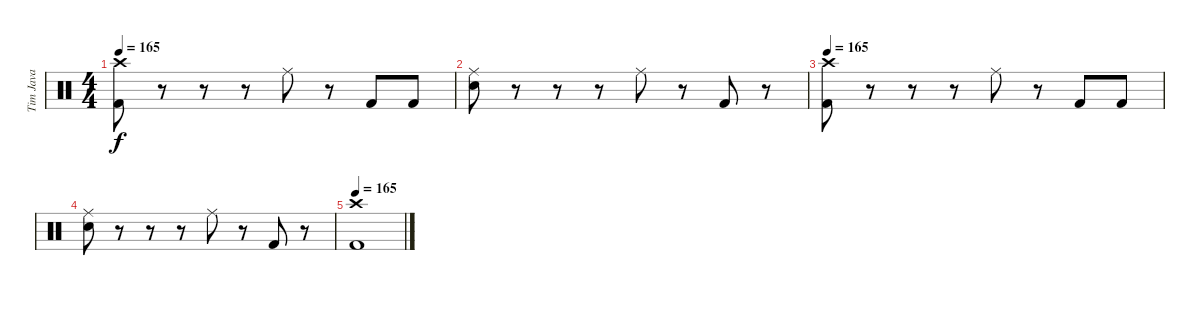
\track ("Tim Java" "Tim Java") {instrument percussion}
\staff {score}
\articulation defaults
\ts (4 4)
\tempo 165
\clef neutral
\ks c
("Crash high (hit)" "Kick (hit) 2").8{dy f} r.8 r.8 r.8 "Ride (middle)".8 r.8 "Kick (hit) 2".8 "Kick (hit) 2".8 |
("Ride (middle)" "Electric Snare (hit)").8 r.8 r.8 r.8 "Ride (middle)".8 r.8 "Kick (hit) 2".8 r.8 |
\tempo 165
("Crash high (hit)" "Kick (hit) 2").8 r.8 r.8 r.8 "Ride (middle)".8 r.8 "Kick (hit) 2".8 "Kick (hit) 2".8 |
("Ride (middle)" "Electric Snare (hit)").8 r.8 r.8 r.8 "Ride (middle)".8 r.8 "Kick (hit) 2".8 r.8 |
\tempo 165
("Crash high (hit)" "Kick (hit) 2").1
